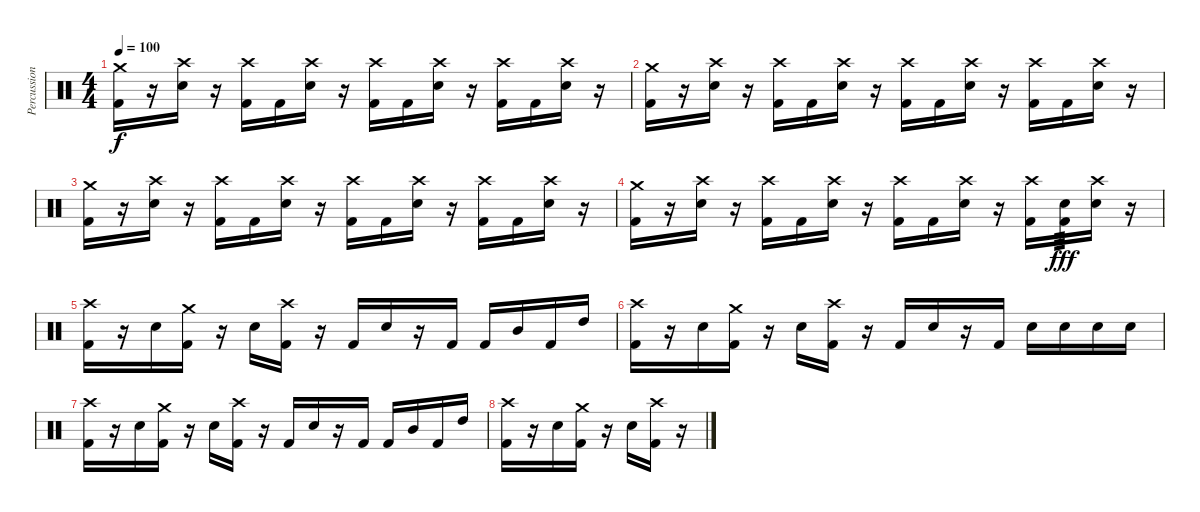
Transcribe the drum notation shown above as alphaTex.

\track ("Percussion" "Percussion") {instrument percussion}
\staff {score}
\articulation defaults
\ts (4 4)
\tempo 100
\clef neutral
\ks c
("Crash medium (hit)" "Kick (hit) 2").16{dy f} r.16 ("Crash high (hit)" "Electric Snare (hit)").16 r.16 ("Crash high (hit)" "Kick (hit) 2").16 "Kick (hit) 2".16 ("Crash high (hit)" "Electric Snare (hit)").16 r.16 ("Crash high (hit)" "Kick (hit) 2").16 "Kick (hit) 2".16 ("Crash high (hit)" "Electric Snare (hit)").16 r.16 ("Crash high (hit)" "Kick (hit) 2").16 "Kick (hit) 2".16 ("Crash high (hit)" "Electric Snare (hit)").16 r.16 |
("Crash medium (hit)" "Kick (hit) 2").16 r.16 ("Crash high (hit)" "Electric Snare (hit)").16 r.16 ("Crash high (hit)" "Kick (hit) 2").16 "Kick (hit) 2".16 ("Crash high (hit)" "Electric Snare (hit)").16 r.16 ("Crash high (hit)" "Kick (hit) 2").16 "Kick (hit) 2".16 ("Crash high (hit)" "Electric Snare (hit)").16 r.16 ("Crash high (hit)" "Kick (hit) 2").16 "Kick (hit) 2".16 ("Crash high (hit)" "Electric Snare (hit)").16 r.16 |
("Crash medium (hit)" "Kick (hit) 2").16 r.16 ("Crash high (hit)" "Electric Snare (hit)").16 r.16 ("Crash high (hit)" "Kick (hit) 2").16 "Kick (hit) 2".16 ("Crash high (hit)" "Electric Snare (hit)").16 r.16 ("Crash high (hit)" "Kick (hit) 2").16 "Kick (hit) 2".16 ("Crash high (hit)" "Electric Snare (hit)").16 r.16 ("Crash high (hit)" "Kick (hit) 2").16 "Kick (hit) 2".16 ("Crash high (hit)" "Electric Snare (hit)").16 r.16 |
("Crash medium (hit)" "Kick (hit) 2").16 r.16 ("Crash high (hit)" "Electric Snare (hit)").16 r.16 ("Crash high (hit)" "Kick (hit) 2").16 "Kick (hit) 2".16 ("Crash high (hit)" "Electric Snare (hit)").16 r.16 ("Crash high (hit)" "Kick (hit) 2").16 "Kick (hit) 2".16 ("Crash high (hit)" "Electric Snare (hit)").16 r.16 ("Crash high (hit)" "Kick (hit) 2").16 ("Electric Snare (hit)" "Kick (hit) 2").16{tp 3 dy fff} ("Crash high (hit)" "Electric Snare (hit)").16 r.16 |
("Crash high (hit)" "Kick (hit) 2").16 r.16 "Electric Snare (hit)".16 ("Crash medium (hit)" "Kick (hit) 2").16 r.16 "Electric Snare (hit)".16 ("Crash high (hit)" "Kick (hit) 2").16 r.16 "Kick (hit) 2".16 "Electric Snare (hit)".16 r.16 "Kick (hit) 2".16 "Kick (hit) 2".16 "Mid Tom (hit)".16 "Kick (hit) 2".16 "High Tom (hit)".16 |
("Crash high (hit)" "Kick (hit) 2").16 r.16 "Electric Snare (hit)".16 ("Crash medium (hit)" "Kick (hit) 2").16 r.16 "Electric Snare (hit)".16 ("Crash high (hit)" "Kick (hit) 2").16 r.16 "Kick (hit) 2".16 "Electric Snare (hit)".16 r.16 "Kick (hit) 2".16 "Electric Snare (hit)".16 "Electric Snare (hit)".16 "Electric Snare (hit)".16 "Electric Snare (hit)".16 |
("Crash high (hit)" "Kick (hit) 2").16 r.16 "Electric Snare (hit)".16 ("Crash medium (hit)" "Kick (hit) 2").16 r.16 "Electric Snare (hit)".16 ("Crash high (hit)" "Kick (hit) 2").16 r.16 "Kick (hit) 2".16 "Electric Snare (hit)".16 r.16 "Kick (hit) 2".16 "Kick (hit) 2".16 "Mid Tom (hit)".16 "Kick (hit) 2".16 "High Tom (hit)".16 |
("Crash high (hit)" "Kick (hit) 2").16 r.16 "Electric Snare (hit)".16 ("Crash medium (hit)" "Kick (hit) 2").16 r.16 "Electric Snare (hit)".16 ("Crash high (hit)" "Kick (hit) 2").16 r.16
